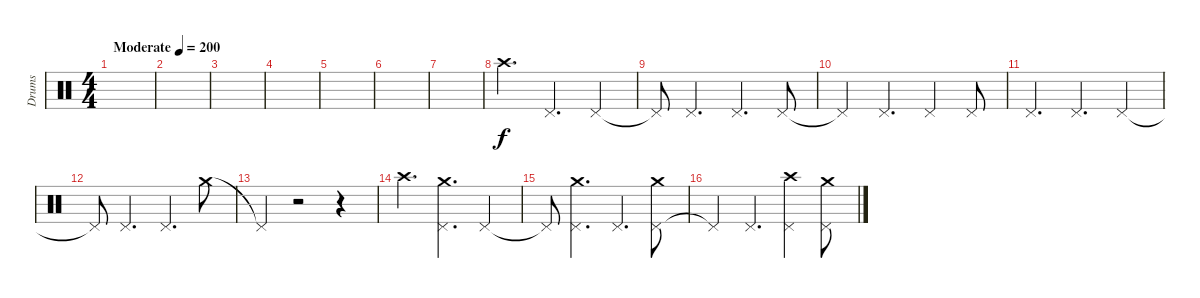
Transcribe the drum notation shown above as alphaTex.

\track ("Drums" "Drums") {instrument percussion}
\staff {score}
\articulation defaults
\ts (4 4)
\tempo (200 "Moderate")
\clef neutral
\ks c
|
|
|
|
|
|
|
"Crash high (hit)".4{d} "Pedal Hi-Hat (hit)".4{d} "Pedal Hi-Hat (hit)".4 |
"Pedal Hi-Hat (hit)"{t}.8 "Pedal Hi-Hat (hit)".4{d} "Pedal Hi-Hat (hit)".4{d} "Pedal Hi-Hat (hit)".8 |
"Pedal Hi-Hat (hit)"{t}.4 "Pedal Hi-Hat (hit)".4{d} "Pedal Hi-Hat (hit)".4 "Pedal Hi-Hat (hit)".8 |
"Pedal Hi-Hat (hit)".4{d} "Pedal Hi-Hat (hit)".4{d} "Pedal Hi-Hat (hit)".4 |
"Pedal Hi-Hat (hit)"{t}.8 "Pedal Hi-Hat (hit)".4{d} "Pedal Hi-Hat (hit)".4{d} "Crash medium (hit)".8 |
"Pedal Hi-Hat (hit)"{t}.4 r.2 r.4 |
"Crash high (hit)".4{d} ("Pedal Hi-Hat (hit)" "Crash medium (hit)").4{d} "Pedal Hi-Hat (hit)".4 |
"Pedal Hi-Hat (hit)"{t}.8 ("Pedal Hi-Hat (hit)" "Crash medium (hit)").4{d} "Pedal Hi-Hat (hit)".4{d} ("Pedal Hi-Hat (hit)" "Crash medium (hit)").8 |
"Pedal Hi-Hat (hit)"{t}.4 "Pedal Hi-Hat (hit)".4{d} ("Pedal Hi-Hat (hit)" "Crash high (hit)").4 ("Pedal Hi-Hat (hit)" "Crash medium (hit)").8
